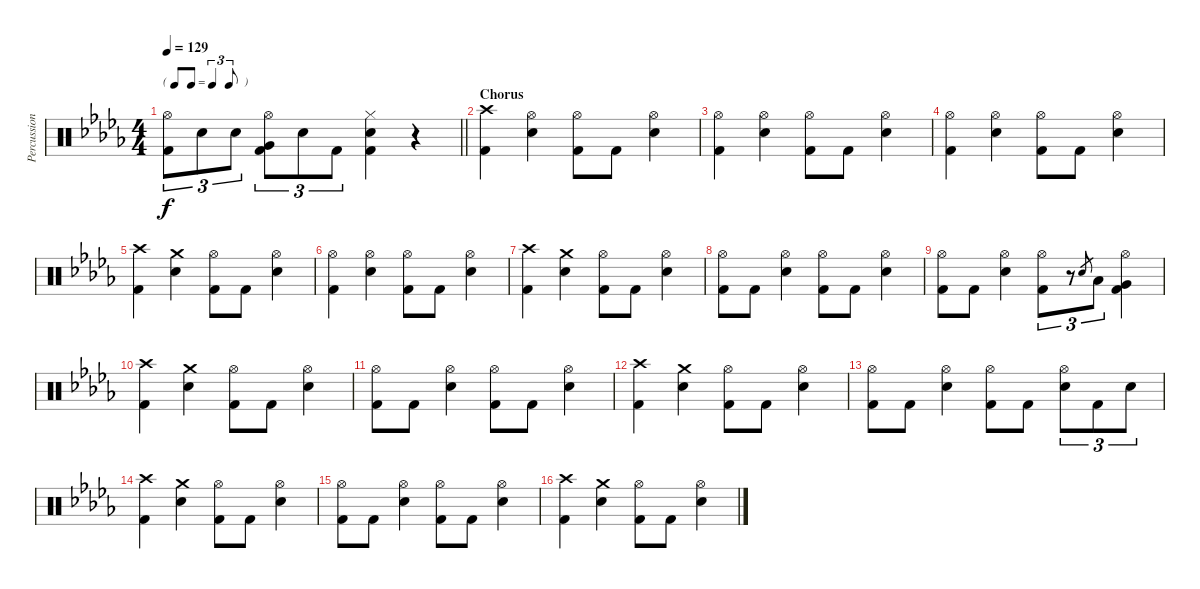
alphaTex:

\track ("Percussion" "Percussion") {instrument percussion}
\staff {score}
\articulation defaults
\ts (4 4)
\tf triplet8th
\tempo 129
\clef neutral
\barLineRight lightlight
\ks db
("Hi-Hat (open)" "Kick (hit) 2").8{tu (3 2) dy f} "Electric Snare (hit)".8{tu (3 2)} "Electric Snare (hit)".8{tu (3 2)} ("Hi-Hat (open)" "Very Low Tom (hit)" "Kick (hit) 2").8{tu (3 2)} "Electric Snare (hit)".8{tu (3 2)} "Kick (hit) 2".8{tu (3 2)} ("Hi-Hat (closed)" "Electric Snare (hit)" "Kick (hit) 2").4 r.4 |
\section ("" "Chorus")
("Crash high (hit)" "Kick (hit) 2").4 ("Hi-Hat (open)" "Electric Snare (hit)").4 ("Hi-Hat (open)" "Kick (hit) 2").8 "Kick (hit) 2".8 ("Hi-Hat (open)" "Electric Snare (hit)").4 |
("Hi-Hat (open)" "Kick (hit) 2").4 ("Hi-Hat (open)" "Electric Snare (hit)").4 ("Hi-Hat (open)" "Kick (hit) 2").8 "Kick (hit) 2".8 ("Hi-Hat (open)" "Electric Snare (hit)").4 |
("Hi-Hat (open)" "Kick (hit) 2").4 ("Hi-Hat (open)" "Electric Snare (hit)").4 ("Hi-Hat (open)" "Kick (hit) 2").8 "Kick (hit) 2".8 ("Hi-Hat (open)" "Electric Snare (hit)").4 |
("Crash high (hit)" "Kick (hit) 2").4 ("Crash medium (hit)" "Electric Snare (hit)").4 ("Hi-Hat (open)" "Kick (hit) 2").8 "Kick (hit) 2".8 ("Hi-Hat (open)" "Electric Snare (hit)").4 |
("Hi-Hat (open)" "Kick (hit) 2").4 ("Hi-Hat (open)" "Electric Snare (hit)").4 ("Hi-Hat (open)" "Kick (hit) 2").8 "Kick (hit) 2".8 ("Hi-Hat (open)" "Electric Snare (hit)").4 |
("Crash high (hit)" "Kick (hit) 2").4 ("Crash medium (hit)" "Electric Snare (hit)").4 ("Hi-Hat (open)" "Kick (hit) 2").8 "Kick (hit) 2".8 ("Hi-Hat (open)" "Electric Snare (hit)").4 |
("Hi-Hat (open)" "Kick (hit) 2").8 "Kick (hit) 2".8 ("Hi-Hat (open)" "Electric Snare (hit)").4 ("Hi-Hat (open)" "Kick (hit) 2").8 "Kick (hit) 2".8 ("Hi-Hat (open)" "Electric Snare (hit)").4 |
("Hi-Hat (open)" "Kick (hit) 2").8 "Kick (hit) 2".8 ("Hi-Hat (open)" "Electric Snare (hit)").4 ("Hi-Hat (open)" "Kick (hit) 2").8{tu (3 2)} r.8{tu (3 2)} "Electric Snare (hit)".8{gr} "Low Tom (hit)".8{tu (3 2)} ("Hi-Hat (open)" "Very Low Tom (hit)" "Kick (hit) 2").4 |
("Crash high (hit)" "Kick (hit) 2").4 ("Crash medium (hit)" "Electric Snare (hit)").4 ("Hi-Hat (open)" "Kick (hit) 2").8 "Kick (hit) 2".8 ("Hi-Hat (open)" "Electric Snare (hit)").4 |
("Hi-Hat (open)" "Kick (hit) 2").8 "Kick (hit) 2".8 ("Hi-Hat (open)" "Electric Snare (hit)").4 ("Hi-Hat (open)" "Kick (hit) 2").8 "Kick (hit) 2".8 ("Hi-Hat (open)" "Electric Snare (hit)").4 |
("Crash high (hit)" "Kick (hit) 2").4 ("Crash medium (hit)" "Electric Snare (hit)").4 ("Hi-Hat (open)" "Kick (hit) 2").8 "Kick (hit) 2".8 ("Hi-Hat (open)" "Electric Snare (hit)").4 |
("Hi-Hat (open)" "Kick (hit) 2").8 "Kick (hit) 2".8 ("Hi-Hat (open)" "Electric Snare (hit)").4 ("Hi-Hat (open)" "Kick (hit) 2").8 "Kick (hit) 2".8 ("Hi-Hat (open)" "Electric Snare (hit)").8{tu (3 2)} "Kick (hit) 2".8{tu (3 2)} "Electric Snare (hit)".8{tu (3 2)} |
("Crash high (hit)" "Kick (hit) 2").4 ("Crash medium (hit)" "Electric Snare (hit)").4 ("Hi-Hat (open)" "Kick (hit) 2").8 "Kick (hit) 2".8 ("Hi-Hat (open)" "Electric Snare (hit)").4 |
("Hi-Hat (open)" "Kick (hit) 2").8 "Kick (hit) 2".8 ("Hi-Hat (open)" "Electric Snare (hit)").4 ("Hi-Hat (open)" "Kick (hit) 2").8 "Kick (hit) 2".8 ("Hi-Hat (open)" "Electric Snare (hit)").4 |
("Crash high (hit)" "Kick (hit) 2").4 ("Crash medium (hit)" "Electric Snare (hit)").4 ("Hi-Hat (open)" "Kick (hit) 2").8 "Kick (hit) 2".8 ("Hi-Hat (open)" "Electric Snare (hit)").4
